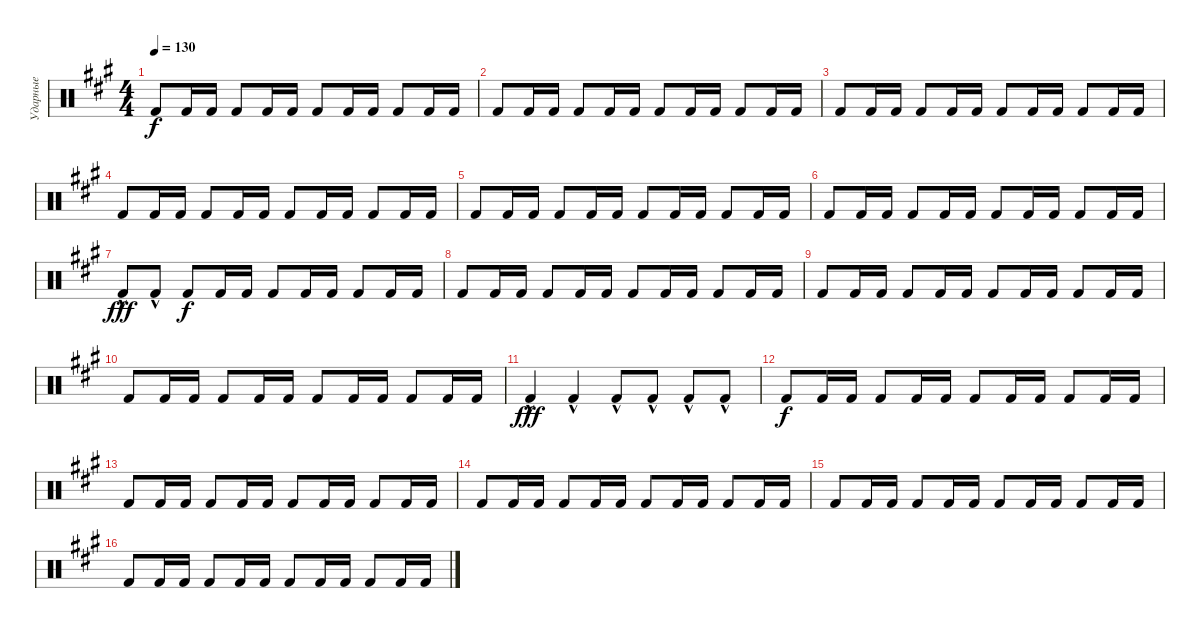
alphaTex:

\track ("Ударные" "Ударные") {instrument percussion}
\staff {score}
\articulation defaults
\ts (4 4)
\tempo 130
\clef neutral
\ks f#minor "Kick (hit) 2".8{dy f} "Kick (hit) 2".16 "Kick (hit) 2".16 "Kick (hit) 2".8 "Kick (hit) 2".16 "Kick (hit) 2".16 "Kick (hit) 2".8 "Kick (hit) 2".16 "Kick (hit) 2".16 "Kick (hit) 2".8 "Kick (hit) 2".16 "Kick (hit) 2".16
|
"Kick (hit) 2".8 "Kick (hit) 2".16 "Kick (hit) 2".16 "Kick (hit) 2".8 "Kick (hit) 2".16 "Kick (hit) 2".16 "Kick (hit) 2".8 "Kick (hit) 2".16 "Kick (hit) 2".16 "Kick (hit) 2".8 "Kick (hit) 2".16 "Kick (hit) 2".16 |
"Kick (hit) 2".8 "Kick (hit) 2".16 "Kick (hit) 2".16 "Kick (hit) 2".8 "Kick (hit) 2".16 "Kick (hit) 2".16 "Kick (hit) 2".8 "Kick (hit) 2".16 "Kick (hit) 2".16 "Kick (hit) 2".8 "Kick (hit) 2".16 "Kick (hit) 2".16 |
"Kick (hit) 2".8 "Kick (hit) 2".16 "Kick (hit) 2".16 "Kick (hit) 2".8 "Kick (hit) 2".16 "Kick (hit) 2".16 "Kick (hit) 2".8 "Kick (hit) 2".16 "Kick (hit) 2".16 "Kick (hit) 2".8 "Kick (hit) 2".16 "Kick (hit) 2".16 |
"Kick (hit) 2".8 "Kick (hit) 2".16 "Kick (hit) 2".16 "Kick (hit) 2".8 "Kick (hit) 2".16 "Kick (hit) 2".16 "Kick (hit) 2".8 "Kick (hit) 2".16 "Kick (hit) 2".16 "Kick (hit) 2".8 "Kick (hit) 2".16 "Kick (hit) 2".16 |
"Kick (hit) 2".8 "Kick (hit) 2".16 "Kick (hit) 2".16 "Kick (hit) 2".8 "Kick (hit) 2".16 "Kick (hit) 2".16 "Kick (hit) 2".8 "Kick (hit) 2".16 "Kick (hit) 2".16 "Kick (hit) 2".8 "Kick (hit) 2".16 "Kick (hit) 2".16 |
"Kick (hit) 2"{hac}.8{dy fff} "Kick (hit) 2"{hac}.8 "Kick (hit) 2".8{dy f} "Kick (hit) 2".16 "Kick (hit) 2".16 "Kick (hit) 2".8 "Kick (hit) 2".16 "Kick (hit) 2".16 "Kick (hit) 2".8 "Kick (hit) 2".16 "Kick (hit) 2".16 |
"Kick (hit) 2".8 "Kick (hit) 2".16 "Kick (hit) 2".16 "Kick (hit) 2".8 "Kick (hit) 2".16 "Kick (hit) 2".16 "Kick (hit) 2".8 "Kick (hit) 2".16 "Kick (hit) 2".16 "Kick (hit) 2".8 "Kick (hit) 2".16 "Kick (hit) 2".16 |
"Kick (hit) 2".8 "Kick (hit) 2".16 "Kick (hit) 2".16 "Kick (hit) 2".8 "Kick (hit) 2".16 "Kick (hit) 2".16 "Kick (hit) 2".8 "Kick (hit) 2".16 "Kick (hit) 2".16 "Kick (hit) 2".8 "Kick (hit) 2".16 "Kick (hit) 2".16 |
"Kick (hit) 2".8 "Kick (hit) 2".16 "Kick (hit) 2".16 "Kick (hit) 2".8 "Kick (hit) 2".16 "Kick (hit) 2".16 "Kick (hit) 2".8 "Kick (hit) 2".16 "Kick (hit) 2".16 "Kick (hit) 2".8 "Kick (hit) 2".16 "Kick (hit) 2".16 |
"Kick (hit) 2"{hac}.4{dy fff} "Kick (hit) 2"{hac}.4 "Kick (hit) 2"{hac}.8 "Kick (hit) 2"{hac}.8 "Kick (hit) 2"{hac}.8 "Kick (hit) 2"{hac}.8 |
"Kick (hit) 2".8{dy f} "Kick (hit) 2".16 "Kick (hit) 2".16 "Kick (hit) 2".8 "Kick (hit) 2".16 "Kick (hit) 2".16 "Kick (hit) 2".8 "Kick (hit) 2".16 "Kick (hit) 2".16 "Kick (hit) 2".8 "Kick (hit) 2".16 "Kick (hit) 2".16 |
"Kick (hit) 2".8 "Kick (hit) 2".16 "Kick (hit) 2".16 "Kick (hit) 2".8 "Kick (hit) 2".16 "Kick (hit) 2".16 "Kick (hit) 2".8 "Kick (hit) 2".16 "Kick (hit) 2".16 "Kick (hit) 2".8 "Kick (hit) 2".16 "Kick (hit) 2".16 |
"Kick (hit) 2".8 "Kick (hit) 2".16 "Kick (hit) 2".16 "Kick (hit) 2".8 "Kick (hit) 2".16 "Kick (hit) 2".16 "Kick (hit) 2".8 "Kick (hit) 2".16 "Kick (hit) 2".16 "Kick (hit) 2".8 "Kick (hit) 2".16 "Kick (hit) 2".16 |
"Kick (hit) 2".8 "Kick (hit) 2".16 "Kick (hit) 2".16 "Kick (hit) 2".8 "Kick (hit) 2".16 "Kick (hit) 2".16 "Kick (hit) 2".8 "Kick (hit) 2".16 "Kick (hit) 2".16 "Kick (hit) 2".8 "Kick (hit) 2".16 "Kick (hit) 2".16 |
"Kick (hit) 2".8 "Kick (hit) 2".16 "Kick (hit) 2".16 "Kick (hit) 2".8 "Kick (hit) 2".16 "Kick (hit) 2".16 "Kick (hit) 2".8 "Kick (hit) 2".16 "Kick (hit) 2".16 "Kick (hit) 2".8 "Kick (hit) 2".16 "Kick (hit) 2".16
